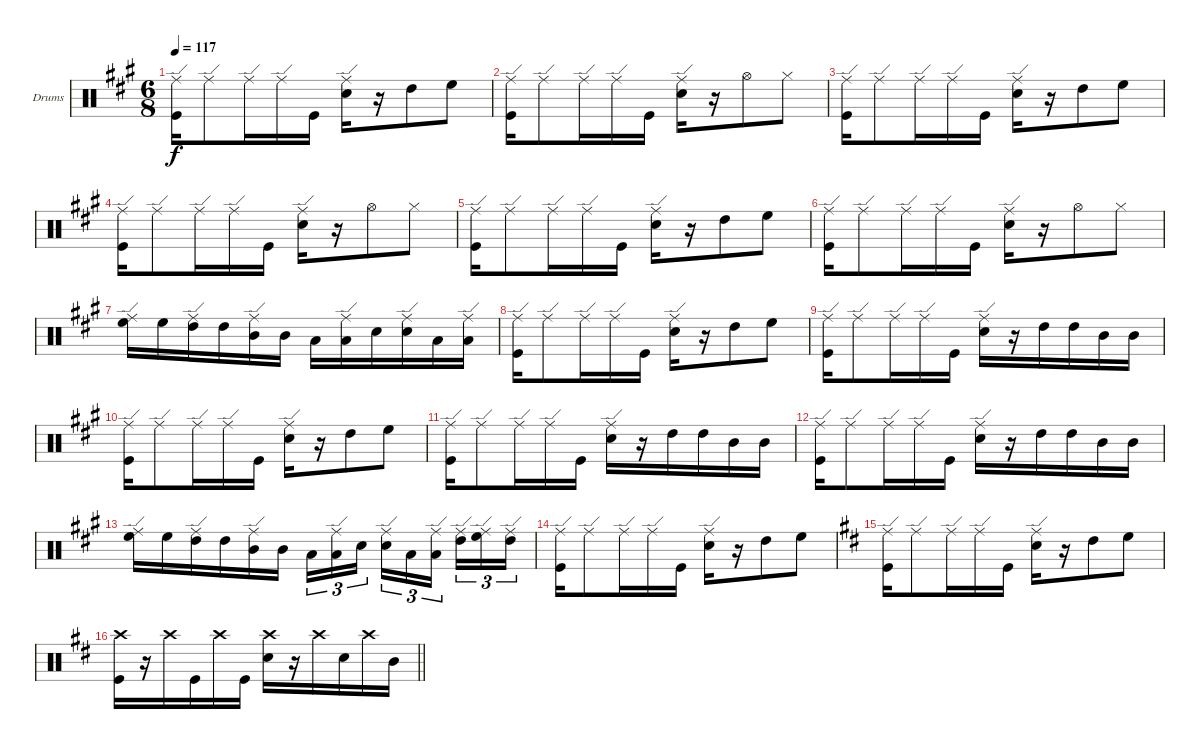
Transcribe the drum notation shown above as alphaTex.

\bracketExtendMode groupsimilarinstruments
\firstSystemTrackNameOrientation horizontal
\otherSystemsTrackNameOrientation horizontal
\track ("Drumkit" "Drums") {instrument percussion}
\staff {score}
\articulation defaults
\ts (6 8)
\tempo 117
\clef neutral
\ks a
("Ride (edge)" "Kick (hit)").16{dy f} "Ride (edge)".8 "Ride (edge)".16 "Ride (edge)".16 "Kick (hit)".16 ("Ride (edge)" "Snare (hit) 2").16 r.16 "High Tom (hit)".8 "High Floor Tom (hit)".8 |
("Ride (edge)" "Kick (hit)").16 "Ride (edge)".8 "Ride (edge)".16 "Ride (edge)".16 "Kick (hit)".16 ("Ride (edge)" "Snare (hit) 2").16 r.16 "Hi-Hat (open)".8 "Hi-Hat (closed)".8 |
("Ride (edge)" "Kick (hit)").16 "Ride (edge)".8 "Ride (edge)".16 "Ride (edge)".16 "Kick (hit)".16 ("Ride (edge)" "Snare (hit) 2").16 r.16 "High Tom (hit)".8 "High Floor Tom (hit)".8 |
("Ride (edge)" "Kick (hit)").16 "Ride (edge)".8 "Ride (edge)".16 "Ride (edge)".16 "Kick (hit)".16 ("Ride (edge)" "Snare (hit) 2").16 r.16 "Hi-Hat (open)".8 "Hi-Hat (closed)".8 |
("Ride (edge)" "Kick (hit)").16 "Ride (edge)".8 "Ride (edge)".16 "Ride (edge)".16 "Kick (hit)".16 ("Ride (edge)" "Snare (hit) 2").16 r.16 "High Tom (hit)".8 "High Floor Tom (hit)".8 |
("Ride (edge)" "Kick (hit)").16 "Ride (edge)".8 "Ride (edge)".16 "Ride (edge)".16 "Kick (hit)".16 ("Ride (edge)" "Snare (hit) 2").16 r.16 "Hi-Hat (open)".8 "Hi-Hat (closed)".8 |
("Ride (edge)" "High Floor Tom (hit)").16 "High Floor Tom (hit)".16 ("Ride (edge)" "High Tom (hit)").16 "High Tom (hit)".16 ("Ride (edge)" "Mid Tom (hit)").16 "Mid Tom (hit)".16 "Low Tom (hit)".16 ("Ride (edge)" "Low Tom (hit)").16 "Snare (hit) 2".16 ("Ride (edge)" "Snare (hit) 2").16 "Low Tom (hit)".16 ("Ride (edge)" "Low Tom (hit)").16 |
("Ride (edge)" "Kick (hit)").16 "Ride (edge)".8 "Ride (edge)".16 "Ride (edge)".16 "Kick (hit)".16 ("Ride (edge)" "Snare (hit) 2").16 r.16 "High Tom (hit)".8 "High Floor Tom (hit)".8 |
("Ride (edge)" "Kick (hit)").16 "Ride (edge)".8 "Ride (edge)".16 "Ride (edge)".16 "Kick (hit)".16 ("Ride (edge)" "Snare (hit) 2").16 r.16 "High Tom (hit)".16 "High Tom (hit)".16 "Mid Tom (hit)".16 "Mid Tom (hit)".16 |
("Ride (edge)" "Kick (hit)").16 "Ride (edge)".8 "Ride (edge)".16 "Ride (edge)".16 "Kick (hit)".16 ("Ride (edge)" "Snare (hit) 2").16 r.16 "High Tom (hit)".8 "High Floor Tom (hit)".8 |
("Ride (edge)" "Kick (hit)").16 "Ride (edge)".8 "Ride (edge)".16 "Ride (edge)".16 "Kick (hit)".16 ("Ride (edge)" "Snare (hit) 2").16 r.16 "High Tom (hit)".16 "High Tom (hit)".16 "Mid Tom (hit)".16 "Mid Tom (hit)".16 |
("Ride (edge)" "Kick (hit)").16 "Ride (edge)".8 "Ride (edge)".16 "Ride (edge)".16 "Kick (hit)".16 ("Ride (edge)" "Snare (hit) 2").16 r.16 "High Tom (hit)".16 "High Tom (hit)".16 "Mid Tom (hit)".16 "Mid Tom (hit)".16 |
("Ride (edge)" "High Floor Tom (hit)").16 "High Floor Tom (hit)".16 ("Ride (edge)" "High Tom (hit)").16 "High Tom (hit)".16 ("Ride (edge)" "Mid Tom (hit)").16 "Mid Tom (hit)".16 "Low Tom (hit)".16{tu (3 2)} ("Ride (edge)" "Low Tom (hit)").16{tu (3 2)} "Snare (hit) 2".16{tu (3 2)} ("Ride (edge)" "Snare (hit) 2").16{tu (3 2)} "Low Tom (hit)".16{tu (3 2)} ("Ride (edge)" "Low Tom (hit)").16{tu (3 2)} ("Ride (edge)" "High Tom (hit)").16{tu (3 2)} ("Ride (edge)" "High Floor Tom (hit)").16{tu (3 2)} ("Ride (edge)" "High Tom (hit)").16{tu (3 2)} |
("Ride (edge)" "Kick (hit)").16 "Ride (edge)".8 "Ride (edge)".16 "Ride (edge)".16 "Kick (hit)".16 ("Ride (edge)" "Snare (hit) 2").16 r.16 "High Tom (hit)".8 "High Floor Tom (hit)".8 |
\ks d
("Ride (edge)" "Kick (hit)").16 "Ride (edge)".8 "Ride (edge)".16 "Ride (edge)".16 "Kick (hit)".16 ("Ride (edge)" "Snare (hit) 2").16 r.16 "High Tom (hit)".8 "High Floor Tom (hit)".8 |
\barLineRight lightlight
("Crash high (hit)" "Kick (hit)").16 r.16 "Crash high (hit)".16 "Kick (hit)".16 "Crash high (hit)".16 "Kick (hit)".16 ("Crash high (hit)" "Snare (hit) 2").16 r.16 "Crash high (hit)".16 "Snare (hit) 2".16 "Crash high (hit)".16 "Mid Tom (hit)".16
